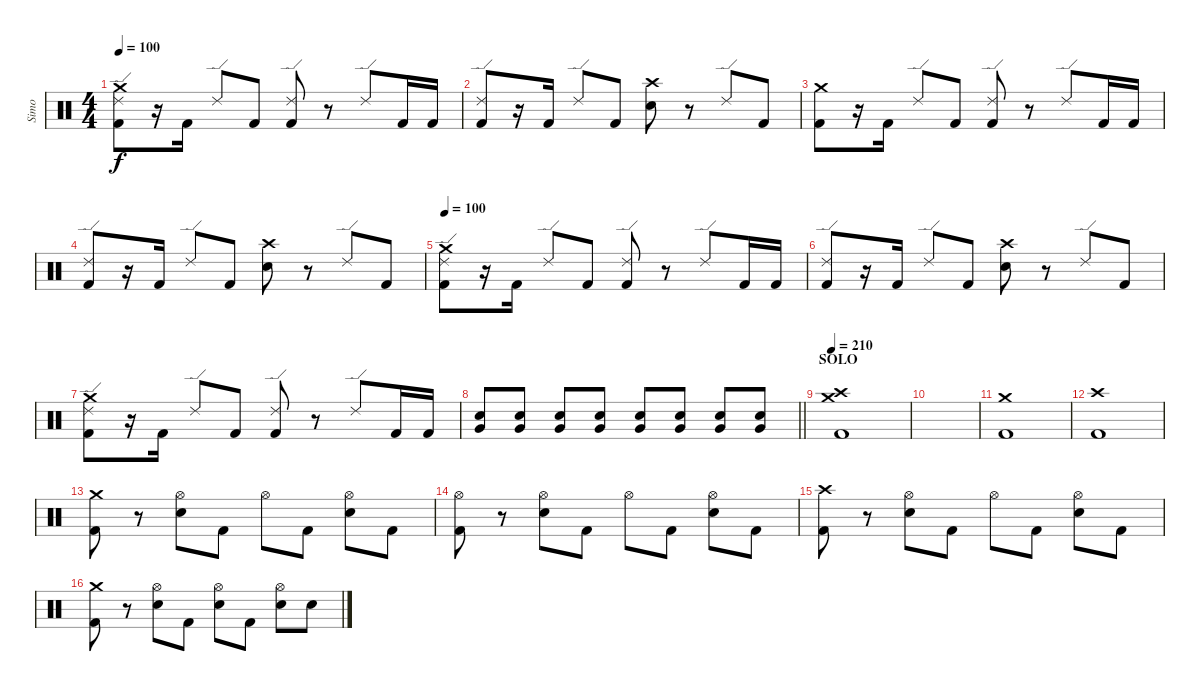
\track ("Simo" "Simo") {instrument percussion bank 121}
\staff {score}
\articulation defaults
\ts (4 4)
\tempo 100
\clef neutral
\ks c
("Kick (hit) 2" "Ride (edge) 2" "Crash medium (hit)").8{dy f} r.16 "Kick (hit) 2".16 "Ride (edge) 2".8 "Kick (hit) 2".8 ("Kick (hit) 2" "Ride (edge) 2").8 r.8 "Ride (edge) 2".8 "Kick (hit) 2".16 "Kick (hit) 2".16 |
("Kick (hit) 2" "Ride (edge) 2").8 r.16 "Kick (hit) 2".16 "Ride (edge) 2".8 "Kick (hit) 2".8 ("Electric Snare (hit)" "Crash high (hit)").8 r.8 "Ride (edge) 2".8 "Kick (hit) 2".8 |
("Kick (hit) 2" "Crash medium (hit)").8 r.16 "Kick (hit) 2".16 "Ride (edge) 2".8 "Kick (hit) 2".8 ("Kick (hit) 2" "Ride (edge) 2").8 r.8 "Ride (edge) 2".8 "Kick (hit) 2".16 "Kick (hit) 2".16 |
("Kick (hit) 2" "Ride (edge) 2").8 r.16 "Kick (hit) 2".16 "Ride (edge) 2".8 "Kick (hit) 2".8 ("Electric Snare (hit)" "Crash high (hit)").8 r.8 "Ride (edge) 2".8 "Kick (hit) 2".8 |
\tempo 100
("Kick (hit) 2" "Crash medium (hit)" "Ride (edge) 2").8 r.16 "Kick (hit) 2".16 "Ride (edge) 2".8 "Kick (hit) 2".8 ("Kick (hit) 2" "Ride (edge) 2").8 r.8 "Ride (edge) 2".8 "Kick (hit) 2".16 "Kick (hit) 2".16 |
("Kick (hit) 2" "Ride (edge) 2").8 r.16 "Kick (hit) 2".16 "Ride (edge) 2".8 "Kick (hit) 2".8 ("Electric Snare (hit)" "Crash high (hit)").8 r.8 "Ride (edge) 2".8 "Kick (hit) 2".8 |
("Kick (hit) 2" "Crash medium (hit)" "Ride (edge) 2").8 r.16 "Kick (hit) 2".16 "Ride (edge) 2".8 "Kick (hit) 2".8 ("Kick (hit) 2" "Ride (edge) 2").8 r.8 "Ride (edge) 2".8 "Kick (hit) 2".16 "Kick (hit) 2".16 |
\barLineRight lightlight
("Electric Snare (hit)" "Very Low Tom (hit)").8{volume 16} ("Electric Snare (hit)" "Very Low Tom (hit)").8 ("Electric Snare (hit)" "Very Low Tom (hit)").8 ("Electric Snare (hit)" "Very Low Tom (hit)").8 ("Electric Snare (hit)" "Very Low Tom (hit)").8 ("Electric Snare (hit)" "Very Low Tom (hit)").8 ("Electric Snare (hit)" "Very Low Tom (hit)").8 ("Electric Snare (hit)" "Very Low Tom (hit)").8 |
\section ("" "SOLO")
\tempo 210
("Kick (hit) 2" "Crash medium (hit)" "Crash high (hit)").1 |
|
("Kick (hit) 2" "Crash medium (hit)").1 |
("Kick (hit) 2" "Crash high (hit)").1 |
("Kick (hit) 2" "Crash medium (hit)").8 r.8 ("Electric Snare (hit)" "Hi-Hat (open)").8 "Kick (hit) 2".8 "Hi-Hat (open)".8 "Kick (hit) 2".8 ("Electric Snare (hit)" "Hi-Hat (open)").8 "Kick (hit) 2".8 |
("Kick (hit) 2" "Hi-Hat (open)").8 r.8 ("Electric Snare (hit)" "Hi-Hat (open)").8 "Kick (hit) 2".8 "Hi-Hat (open)".8 "Kick (hit) 2".8 ("Electric Snare (hit)" "Hi-Hat (open)").8 "Kick (hit) 2".8 |
("Kick (hit) 2" "Crash high (hit)").8 r.8 ("Electric Snare (hit)" "Hi-Hat (open)").8 "Kick (hit) 2".8 "Hi-Hat (open)".8 "Kick (hit) 2".8 ("Electric Snare (hit)" "Hi-Hat (open)").8 "Kick (hit) 2".8 |
("Kick (hit) 2" "Crash medium (hit)").8 r.8 ("Electric Snare (hit)" "Hi-Hat (open)").8 "Kick (hit) 2".8 ("Electric Snare (hit)" "Hi-Hat (open)").8 "Kick (hit) 2".8 ("Electric Snare (hit)" "Hi-Hat (open)").8 "Electric Snare (hit)".8
